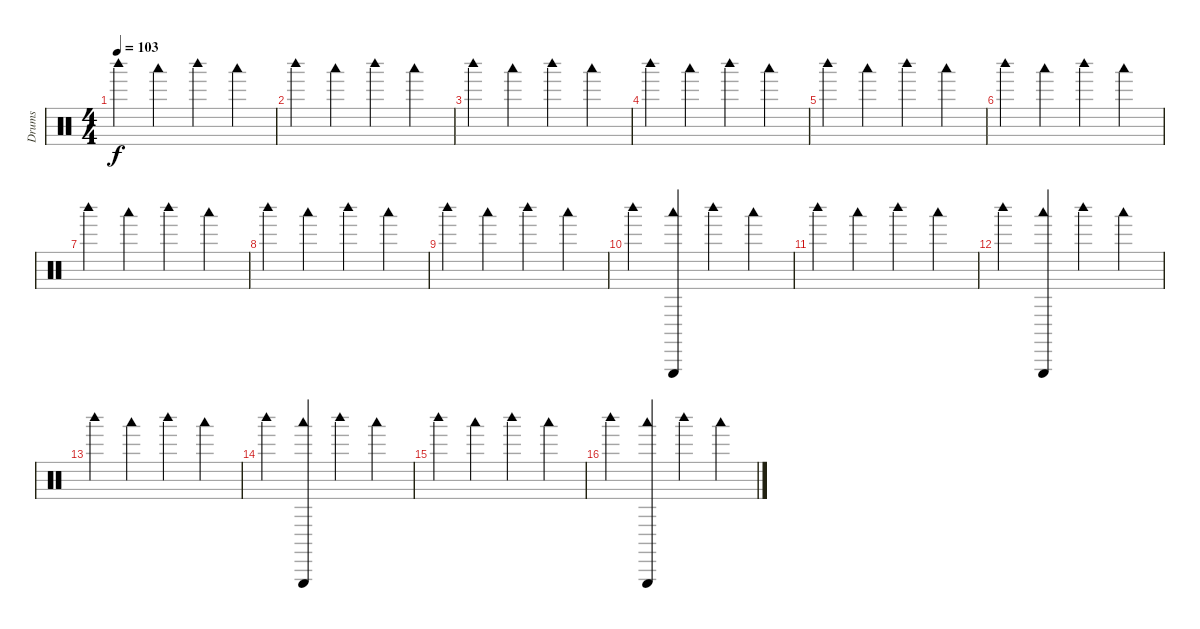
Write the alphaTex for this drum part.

\track ("Drums" "Drums") {instrument percussion}
\staff {score}
\articulation defaults
\ts (4 4)
\tempo 103
\clef neutral
\ks c "Woodblock high (hit)".4{dy f} "Woodblock low (hit)".4 "Woodblock high (hit)".4 "Woodblock low (hit)".4
|
"Woodblock high (hit)".4 "Woodblock low (hit)".4 "Woodblock high (hit)".4 "Woodblock low (hit)".4 |
"Woodblock high (hit)".4 "Woodblock low (hit)".4 "Woodblock high (hit)".4 "Woodblock low (hit)".4 |
"Woodblock high (hit)".4 "Woodblock low (hit)".4 "Woodblock high (hit)".4 "Woodblock low (hit)".4 |
"Woodblock high (hit)".4 "Woodblock low (hit)".4 "Woodblock high (hit)".4 "Woodblock low (hit)".4 |
"Woodblock high (hit)".4 "Woodblock low (hit)".4 "Woodblock high (hit)".4 "Woodblock low (hit)".4 |
"Woodblock high (hit)".4 "Woodblock low (hit)".4 "Woodblock high (hit)".4 "Woodblock low (hit)".4 |
"Woodblock high (hit)".4 "Woodblock low (hit)".4 "Woodblock high (hit)".4 "Woodblock low (hit)".4 |
"Woodblock high (hit)".4 "Woodblock low (hit)".4 "Woodblock high (hit)".4 "Woodblock low (hit)".4 |
"Woodblock high (hit)".4 ("Woodblock low (hit)" "Triangle (hit)").4 "Woodblock high (hit)".4 "Woodblock low (hit)".4 |
"Woodblock high (hit)".4 "Woodblock low (hit)".4 "Woodblock high (hit)".4 "Woodblock low (hit)".4 |
"Woodblock high (hit)".4 ("Woodblock low (hit)" "Triangle (hit)").4 "Woodblock high (hit)".4 "Woodblock low (hit)".4 |
"Woodblock high (hit)".4 "Woodblock low (hit)".4 "Woodblock high (hit)".4 "Woodblock low (hit)".4 |
"Woodblock high (hit)".4 ("Woodblock low (hit)" "Triangle (hit)").4 "Woodblock high (hit)".4 "Woodblock low (hit)".4 |
"Woodblock high (hit)".4 "Woodblock low (hit)".4 "Woodblock high (hit)".4 "Woodblock low (hit)".4 |
"Woodblock high (hit)".4 ("Woodblock low (hit)" "Triangle (hit)").4 "Woodblock high (hit)".4 "Woodblock low (hit)".4
